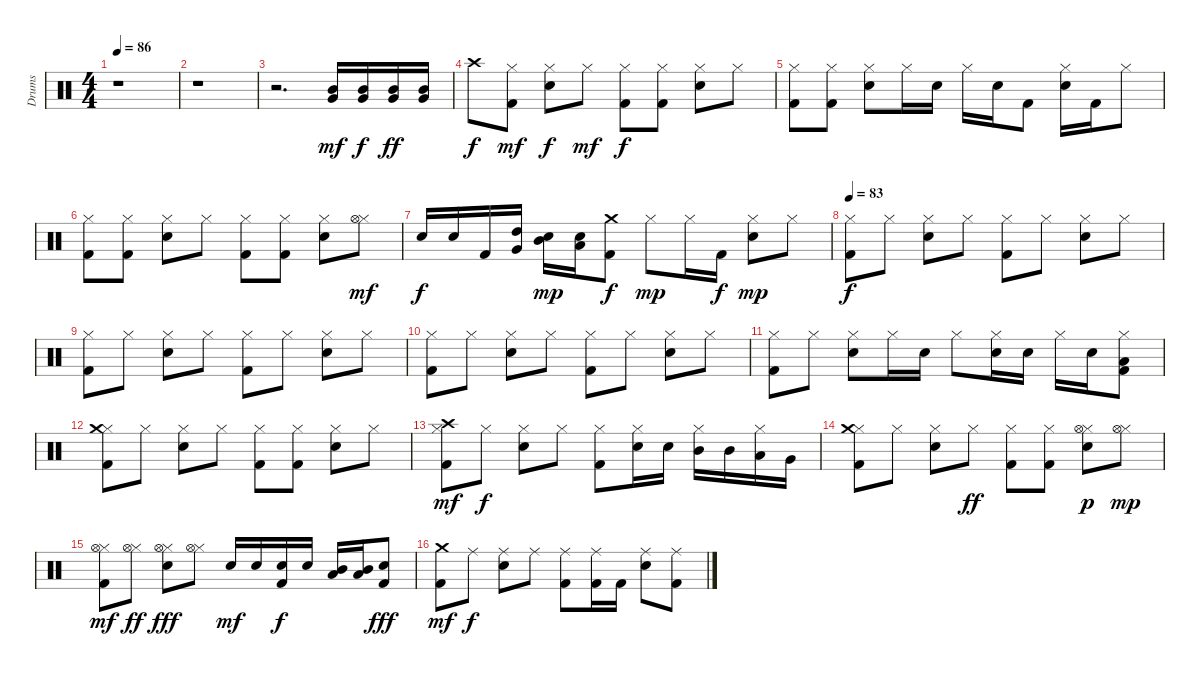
\track ("Drums" "Drums") {instrument percussion}
\staff {score}
\articulation defaults
\ts (4 4)
\tempo 86
\clef neutral
\ks c
r.1{dy mp} |
r.1 |
r.2{d} ("Very Low Tom (hit)" "Mid Tom (hit)").16{dy mf volume 10} ("Very Low Tom (hit)" "Mid Tom (hit)").16{dy f} ("Very Low Tom (hit)" "Mid Tom (hit)").16{dy ff} ("Very Low Tom (hit)" "Mid Tom (hit)").16 |
"Crash high (hit)".8{dy f} ("Kick (hit) 2" "Hi-Hat (closed)").8{dy mf volume 10} ("Electric Snare (hit)" "Hi-Hat (closed)").8{dy f} "Hi-Hat (closed)".8{dy mf} ("Hi-Hat (closed)" "Kick (hit) 2").8{dy f} ("Hi-Hat (closed)" "Kick (hit) 2").8 ("Hi-Hat (closed)" "Electric Snare (hit)").8 "Hi-Hat (closed)".8 |
("Hi-Hat (closed)" "Kick (hit) 2").8 ("Hi-Hat (closed)" "Kick (hit) 2").8 ("Hi-Hat (closed)" "Electric Snare (hit)").8 "Hi-Hat (closed)".16 "Electric Snare (hit)".16 "Hi-Hat (closed)".16 "Electric Snare (hit)".16 "Kick (hit) 2".8 ("Hi-Hat (closed)" "Electric Snare (hit)").16 "Kick (hit) 2".16 "Hi-Hat (closed)".8 |
("Hi-Hat (closed)" "Kick (hit) 2").8 ("Hi-Hat (closed)" "Kick (hit) 2").8 ("Hi-Hat (closed)" "Electric Snare (hit)").8 "Hi-Hat (closed)".8 ("Hi-Hat (closed)" "Kick (hit) 2").8 ("Hi-Hat (closed)" "Kick (hit) 2").8 ("Hi-Hat (closed)" "Electric Snare (hit)").8 ("Hi-Hat (closed)" "Hi-Hat (open)").8{dy mf} |
"Electric Snare (hit)".16{dy f} "Electric Snare (hit)".16 "Kick (hit) 2".16 ("High Tom (hit)" "Very Low Tom (hit)").16 ("Mid Tom (hit)" "Electric Snare (hit)").16{dy mp} ("Low Tom (hit)" "Electric Snare (hit)").16 ("Crash medium (hit)" "Kick (hit) 2").8{dy f} "Hi-Hat (closed)".8{dy mp} "Hi-Hat (closed)".16 "Kick (hit) 2".16{dy f} ("Hi-Hat (closed)" "Electric Snare (hit)").8{dy mp} "Hi-Hat (closed)".8 |
\tempo 83
("Hi-Hat (closed)" "Kick (hit) 2").8{dy f} "Hi-Hat (closed)".8 ("Hi-Hat (closed)" "Electric Snare (hit)").8 "Hi-Hat (closed)".8 ("Hi-Hat (closed)" "Kick (hit) 2").8 "Hi-Hat (closed)".8 ("Hi-Hat (closed)" "Electric Snare (hit)").8 "Hi-Hat (closed)".8 |
("Hi-Hat (closed)" "Kick (hit) 2").8 "Hi-Hat (closed)".8 ("Hi-Hat (closed)" "Electric Snare (hit)").8 "Hi-Hat (closed)".8 ("Hi-Hat (closed)" "Kick (hit) 2").8 "Hi-Hat (closed)".8 ("Hi-Hat (closed)" "Electric Snare (hit)").8 "Hi-Hat (closed)".8 |
("Hi-Hat (closed)" "Kick (hit) 2").8 "Hi-Hat (closed)".8 ("Hi-Hat (closed)" "Electric Snare (hit)").8 "Hi-Hat (closed)".8 ("Hi-Hat (closed)" "Kick (hit) 2").8 "Hi-Hat (closed)".8 ("Hi-Hat (closed)" "Electric Snare (hit)").8 "Hi-Hat (closed)".8 |
("Hi-Hat (closed)" "Kick (hit) 2").8 "Hi-Hat (closed)".8 ("Hi-Hat (closed)" "Electric Snare (hit)").8 "Hi-Hat (closed)".16 "Electric Snare (hit)".16 "Hi-Hat (closed)".8 ("Hi-Hat (closed)" "Electric Snare (hit)").16 "Electric Snare (hit)".16 "Hi-Hat (closed)".16 "Electric Snare (hit)".16 ("Hi-Hat (closed)" "Low Tom (hit)" "Kick (hit) 2").8 |
("Hi-Hat (closed)" "Kick (hit) 2" "Crash medium (hit)").8 "Hi-Hat (closed)".8 ("Hi-Hat (closed)" "Electric Snare (hit)").8 "Hi-Hat (closed)".8 ("Hi-Hat (closed)" "Kick (hit) 2").8 ("Hi-Hat (closed)" "Kick (hit) 2").8 ("Hi-Hat (closed)" "Electric Snare (hit)").8 "Hi-Hat (closed)".8 |
("Hi-Hat (closed)" "Crash high (hit)" "Kick (hit) 2").8{dy mf} "Hi-Hat (closed)".8{dy f} ("Hi-Hat (closed)" "Electric Snare (hit)").8 "Hi-Hat (closed)".8 ("Hi-Hat (closed)" "Kick (hit) 2").8 ("Hi-Hat (closed)" "Electric Snare (hit)").16 "Electric Snare (hit)".16 ("Hi-Hat (closed)" "Mid Tom (hit)").16 "Mid Tom (hit)".16 ("Hi-Hat (closed)" "Low Tom (hit)").16 "Very Low Tom (hit)".16 |
("Hi-Hat (closed)" "Crash medium (hit)" "Kick (hit) 2").8 "Hi-Hat (closed)".8 ("Hi-Hat (closed)" "Electric Snare (hit)").8 "Hi-Hat (closed)".8{dy ff} ("Hi-Hat (closed)" "Kick (hit) 2").8 ("Hi-Hat (closed)" "Kick (hit) 2").8 ("Hi-Hat (closed)" "Electric Snare (hit)" "Hi-Hat (open)").8{dy p} ("Hi-Hat (closed)" "Hi-Hat (open)").8{dy mp} |
("Hi-Hat (closed)" "Hi-Hat (open)" "Kick (hit) 2").8{dy mf} ("Hi-Hat (closed)" "Hi-Hat (open)").8{dy ff} ("Hi-Hat (closed)" "Hi-Hat (open)" "Electric Snare (hit)").8{dy fff} ("Hi-Hat (closed)" "Hi-Hat (open)").8 "Electric Snare (hit)".16{dy mf} "Electric Snare (hit)".16 ("Electric Snare (hit)" "Kick (hit) 2").16{dy f} "Electric Snare (hit)".16 ("Low Tom (hit)" "Mid Tom (hit)").16 ("Low Tom (hit)" "Mid Tom (hit)").16 ("Electric Snare (hit)" "Kick (hit) 2").8{dy fff} |
("Crash medium (hit)" "Kick (hit) 2").8{dy mf volume 11} "Ride (middle)".8{dy f} ("Ride (middle)" "Electric Snare (hit)").8 "Ride (middle)".8 ("Ride (middle)" "Kick (hit) 2").8 ("Ride (middle)" "Kick (hit) 2").16 "Kick (hit) 2".16 ("Ride (middle)" "Electric Snare (hit)").8 ("Ride (middle)" "Kick (hit) 2").8
